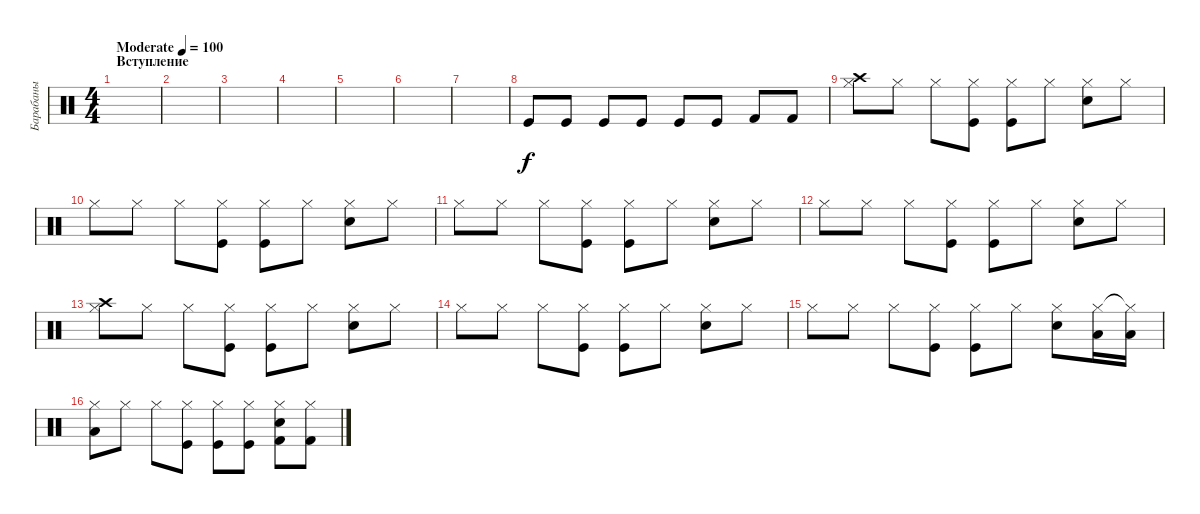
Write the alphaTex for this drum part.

\track ("Барабаны" "Барабаны") {instrument percussion}
\staff {score}
\articulation defaults
\ts (4 4)
\section ("" "Вступление")
\tempo (100 "Moderate")
\clef neutral
\ks c
|
|
|
|
|
|
|
"Kick (hit)".8{volume 1} "Kick (hit)".8{volume 1} "Kick (hit)".8{volume 2} "Kick (hit)".8{volume 4} "Kick (hit)".8{volume 6} "Kick (hit)".8{volume 8} "Kick (hit) 2".8{volume 10} "Kick (hit) 2".8{volume 12} |
("Crash high (hit)" "Hi-Hat (closed)").8 "Hi-Hat (closed)".8 "Hi-Hat (closed)".8 ("Kick (hit)" "Hi-Hat (closed)").8 ("Kick (hit)" "Hi-Hat (closed)").8 "Hi-Hat (closed)".8 ("Snare (hit) 2" "Hi-Hat (closed)").8 "Hi-Hat (closed)".8 |
"Hi-Hat (closed)".8 "Hi-Hat (closed)".8 "Hi-Hat (closed)".8 ("Kick (hit)" "Hi-Hat (closed)").8 ("Kick (hit)" "Hi-Hat (closed)").8 "Hi-Hat (closed)".8 ("Snare (hit) 2" "Hi-Hat (closed)").8 "Hi-Hat (closed)".8 |
"Hi-Hat (closed)".8 "Hi-Hat (closed)".8 "Hi-Hat (closed)".8 ("Kick (hit)" "Hi-Hat (closed)").8 ("Kick (hit)" "Hi-Hat (closed)").8 "Hi-Hat (closed)".8 ("Snare (hit) 2" "Hi-Hat (closed)").8 "Hi-Hat (closed)".8 |
"Hi-Hat (closed)".8 "Hi-Hat (closed)".8 "Hi-Hat (closed)".8 ("Kick (hit)" "Hi-Hat (closed)").8 ("Kick (hit)" "Hi-Hat (closed)").8 "Hi-Hat (closed)".8 ("Snare (hit) 2" "Hi-Hat (closed)").8 "Hi-Hat (closed)".8 |
("Crash high (hit)" "Hi-Hat (closed)").8 "Hi-Hat (closed)".8 "Hi-Hat (closed)".8 ("Kick (hit)" "Hi-Hat (closed)").8 ("Kick (hit)" "Hi-Hat (closed)").8 "Hi-Hat (closed)".8 ("Snare (hit) 2" "Hi-Hat (closed)").8 "Hi-Hat (closed)".8 |
"Hi-Hat (closed)".8 "Hi-Hat (closed)".8 "Hi-Hat (closed)".8 ("Kick (hit)" "Hi-Hat (closed)").8 ("Kick (hit)" "Hi-Hat (closed)").8 "Hi-Hat (closed)".8 ("Snare (hit) 2" "Hi-Hat (closed)").8 "Hi-Hat (closed)".8 |
"Hi-Hat (closed)".8 "Hi-Hat (closed)".8 "Hi-Hat (closed)".8 ("Kick (hit)" "Hi-Hat (closed)").8 ("Kick (hit)" "Hi-Hat (closed)").8 "Hi-Hat (closed)".8 ("Snare (hit) 2" "Hi-Hat (closed)").8 ("Low Tom (hit)" "Hi-Hat (closed)").16 ("Low Tom (hit)" "Hi-Hat (closed)"{t}).16 |
("Low Tom (hit)" "Hi-Hat (closed)").8 "Hi-Hat (closed)".8 "Hi-Hat (closed)".8 ("Kick (hit)" "Hi-Hat (closed)").8{balance 12} ("Kick (hit)" "Hi-Hat (closed)").8{balance 10} ("Kick (hit)" "Hi-Hat (closed)").8{balance 8} ("Snare (hit) 2" "Kick (hit) 2" "Hi-Hat (closed)").8{balance 4} ("Kick (hit) 2" "Hi-Hat (closed)").8{balance 4}
